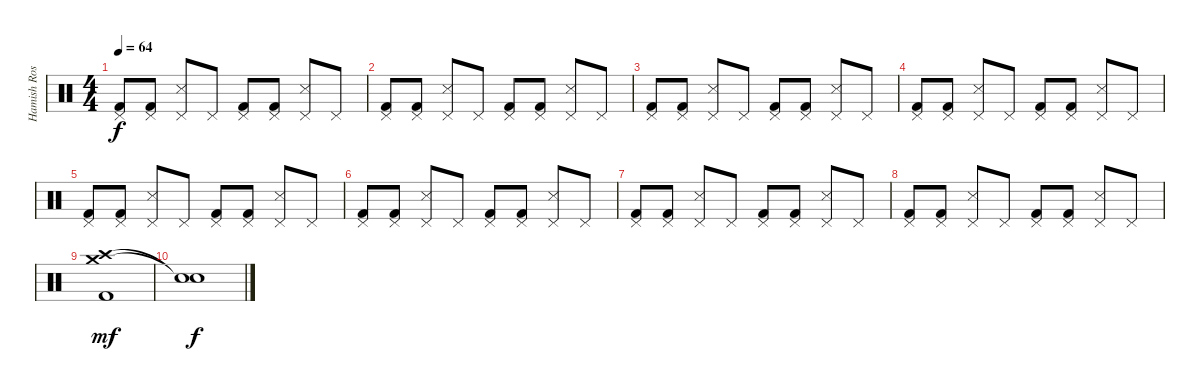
\track ("Hamish Rosser" "Hamish Ros") {instrument percussion}
\staff {score}
\articulation defaults
\ts (4 4)
\tempo 64
\clef neutral
\ks c
("Pedal Hi-Hat (hit)" "Kick (hit) 2").8{dy f} ("Pedal Hi-Hat (hit)" "Kick (hit) 2").8 ("Pedal Hi-Hat (hit)" "Snare (side stick) 3").8 "Pedal Hi-Hat (hit)".8 ("Pedal Hi-Hat (hit)" "Kick (hit) 2").8 ("Pedal Hi-Hat (hit)" "Kick (hit) 2").8 ("Pedal Hi-Hat (hit)" "Snare (side stick) 3").8 "Pedal Hi-Hat (hit)".8 |
("Pedal Hi-Hat (hit)" "Kick (hit) 2").8 ("Pedal Hi-Hat (hit)" "Kick (hit) 2").8 ("Pedal Hi-Hat (hit)" "Snare (side stick) 3").8 "Pedal Hi-Hat (hit)".8 ("Pedal Hi-Hat (hit)" "Kick (hit) 2").8 ("Pedal Hi-Hat (hit)" "Kick (hit) 2").8 ("Pedal Hi-Hat (hit)" "Snare (side stick) 3").8 "Pedal Hi-Hat (hit)".8 |
("Pedal Hi-Hat (hit)" "Kick (hit) 2").8 ("Pedal Hi-Hat (hit)" "Kick (hit) 2").8 ("Pedal Hi-Hat (hit)" "Snare (side stick) 3").8 "Pedal Hi-Hat (hit)".8 ("Pedal Hi-Hat (hit)" "Kick (hit) 2").8 ("Pedal Hi-Hat (hit)" "Kick (hit) 2").8 ("Pedal Hi-Hat (hit)" "Snare (side stick) 3").8 "Pedal Hi-Hat (hit)".8 |
("Pedal Hi-Hat (hit)" "Kick (hit) 2").8 ("Pedal Hi-Hat (hit)" "Kick (hit) 2").8 ("Pedal Hi-Hat (hit)" "Snare (side stick) 3").8 "Pedal Hi-Hat (hit)".8 ("Pedal Hi-Hat (hit)" "Kick (hit) 2").8 ("Pedal Hi-Hat (hit)" "Kick (hit) 2").8 ("Pedal Hi-Hat (hit)" "Snare (side stick) 3").8 "Pedal Hi-Hat (hit)".8 |
("Pedal Hi-Hat (hit)" "Kick (hit) 2").8 ("Pedal Hi-Hat (hit)" "Kick (hit) 2").8 ("Pedal Hi-Hat (hit)" "Snare (side stick) 3").8 "Pedal Hi-Hat (hit)".8 ("Pedal Hi-Hat (hit)" "Kick (hit) 2").8 ("Pedal Hi-Hat (hit)" "Kick (hit) 2").8 ("Pedal Hi-Hat (hit)" "Snare (side stick) 3").8 "Pedal Hi-Hat (hit)".8 |
("Pedal Hi-Hat (hit)" "Kick (hit) 2").8 ("Pedal Hi-Hat (hit)" "Kick (hit) 2").8 ("Pedal Hi-Hat (hit)" "Snare (side stick) 3").8 "Pedal Hi-Hat (hit)".8 ("Pedal Hi-Hat (hit)" "Kick (hit) 2").8 ("Pedal Hi-Hat (hit)" "Kick (hit) 2").8 ("Pedal Hi-Hat (hit)" "Snare (side stick) 3").8 "Pedal Hi-Hat (hit)".8 |
("Pedal Hi-Hat (hit)" "Kick (hit) 2").8 ("Pedal Hi-Hat (hit)" "Kick (hit) 2").8 ("Pedal Hi-Hat (hit)" "Snare (side stick) 3").8 "Pedal Hi-Hat (hit)".8 ("Pedal Hi-Hat (hit)" "Kick (hit) 2").8 ("Pedal Hi-Hat (hit)" "Kick (hit) 2").8 ("Pedal Hi-Hat (hit)" "Snare (side stick) 3").8 "Pedal Hi-Hat (hit)".8 |
("Pedal Hi-Hat (hit)" "Kick (hit) 2").8 ("Pedal Hi-Hat (hit)" "Kick (hit) 2").8 ("Pedal Hi-Hat (hit)" "Snare (side stick) 3").8 "Pedal Hi-Hat (hit)".8 ("Pedal Hi-Hat (hit)" "Kick (hit) 2").8 ("Pedal Hi-Hat (hit)" "Kick (hit) 2").8 ("Pedal Hi-Hat (hit)" "Snare (side stick) 3").8 "Pedal Hi-Hat (hit)".8 |
("Crash medium (hit)" "Crash high (hit)" "Kick (hit) 2").1{dy mf} |
("Snare (hit)"{t} "Snare (hit)"{t}).1{dy f}
